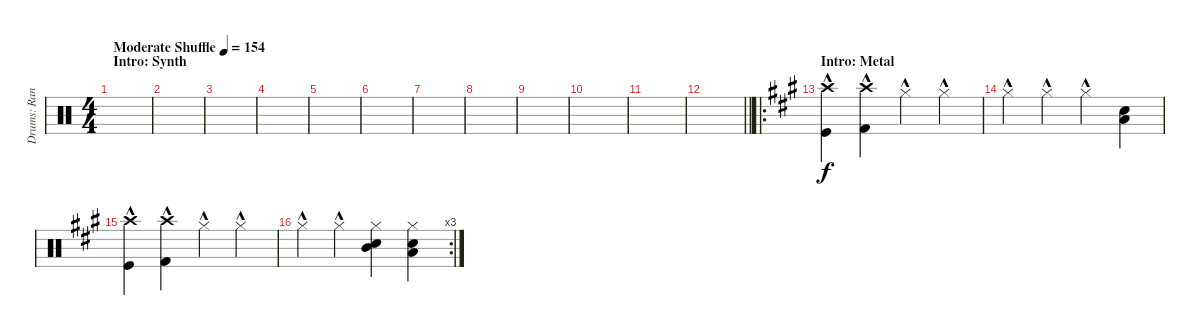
\track ("Drums: Randy" "Drums: Ran") {instrument percussion}
\staff {score}
\articulation defaults
\ts (4 4)
\section ("" "Intro: Synth")
\tempo (154 "Moderate Shuffle")
\clef neutral
\ks c
|
|
|
|
|
|
|
|
|
|
|
\barLineRight lightlight
|
\ro
\section ("" "Intro: Metal")
\ks a
("Crash high (hit)"{hac} "Kick (hit)"{hac}).4 ("Crash high (hit)"{hac} "Kick (hit) 2"{hac}).4 "Hi-Hat (closed)"{hac}.4 "Hi-Hat (closed)"{hac}.4 |
"Hi-Hat (closed)"{hac}.4 "Hi-Hat (closed)"{hac}.4 "Hi-Hat (closed)"{hac}.4 ("Snare (hit) 2" "Low Tom (hit)").4 |
("Crash high (hit)"{hac} "Kick (hit)"{hac}).4 ("Crash high (hit)"{hac} "Kick (hit) 2"{hac}).4 "Hi-Hat (closed)"{hac}.4 "Hi-Hat (closed)"{hac}.4 |
\rc 3 "Hi-Hat (closed)"{hac}.4 "Hi-Hat (closed)"{hac}.4
("Hi-Hat (closed)" "Snare (hit) 2" "Mid Tom (hit)").4 ("Hi-Hat (closed)" "Snare (hit) 2" "Low Tom (hit)").4
